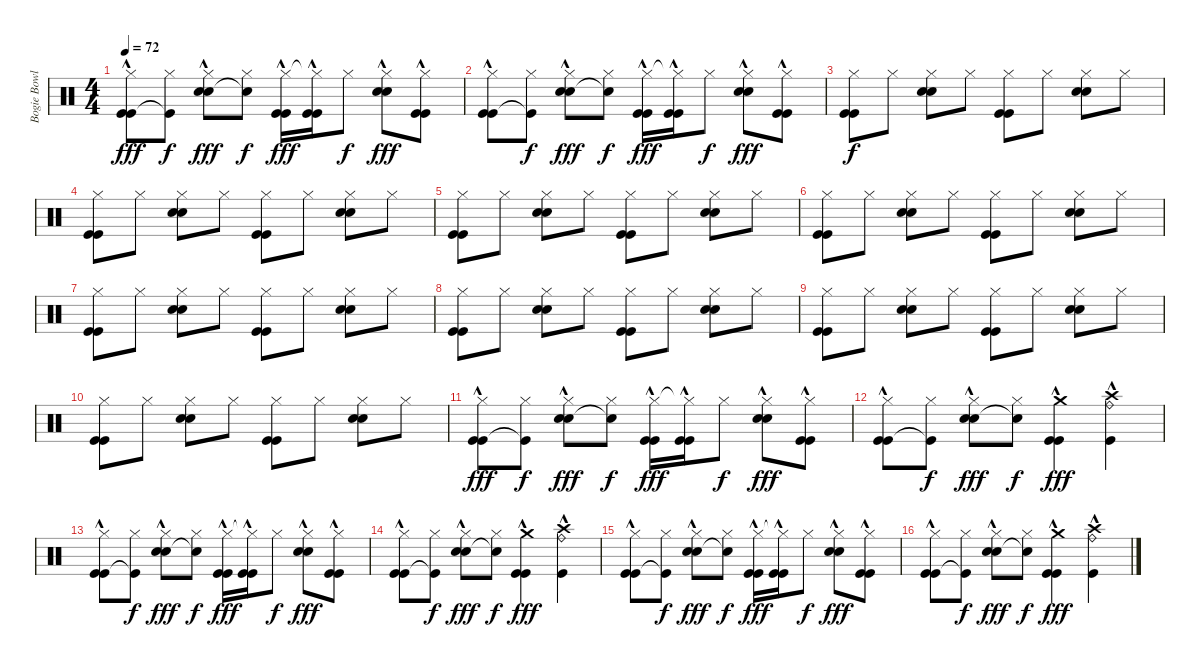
\track ("Bogie Bowles" "Bogie Bowl") {instrument percussion}
\staff {score}
\articulation defaults
\ts (4 4)
\tempo 72
\clef neutral
\ks c
("Hi-Hat (closed)" "Kick (hit)"{hac} "Kick (hit)"{hac}).8{dy fff} ("Hi-Hat (closed)" "Kick (hit)"{t}).8{dy f} ("Hi-Hat (closed)" "Snare (hit) 2"{hac} "Snare (hit) 2"{hac}).8{dy fff} ("Hi-Hat (closed)" "Snare (hit) 2"{t}).8{dy f} ("Hi-Hat (closed)" "Kick (hit)"{hac} "Kick (hit)"{hac}).16{dy fff} ("Hi-Hat (closed)"{t} "Kick (hit)"{hac} "Kick (hit)"{hac}).16 "Hi-Hat (closed)".8{dy f} ("Hi-Hat (closed)" "Snare (hit) 2"{hac} "Snare (hit) 2"{hac}).8{dy fff} ("Hi-Hat (closed)" "Kick (hit)"{hac} "Kick (hit)"{hac}).8 |
("Hi-Hat (closed)" "Kick (hit)"{hac} "Kick (hit)"{hac}).8 ("Hi-Hat (closed)" "Kick (hit)"{t}).8{dy f} ("Hi-Hat (closed)" "Snare (hit) 2"{hac} "Snare (hit) 2"{hac}).8{dy fff} ("Hi-Hat (closed)" "Snare (hit) 2"{t}).8{dy f} ("Hi-Hat (closed)" "Kick (hit)"{hac} "Kick (hit)"{hac}).16{dy fff} ("Hi-Hat (closed)"{t} "Kick (hit)"{hac} "Kick (hit)"{hac}).16 "Hi-Hat (closed)".8{dy f} ("Hi-Hat (closed)" "Snare (hit) 2"{hac} "Snare (hit) 2"{hac}).8{dy fff} ("Hi-Hat (closed)" "Kick (hit)"{hac} "Kick (hit)"{hac}).8 |
("Hi-Hat (closed)" "Kick (hit)" "Kick (hit)").8{dy f} "Hi-Hat (closed)".8 ("Hi-Hat (closed)" "Snare (hit) 2" "Snare (hit) 2").8 "Hi-Hat (closed)".8 ("Hi-Hat (closed)" "Kick (hit)" "Kick (hit)").8 "Hi-Hat (closed)".8 ("Hi-Hat (closed)" "Snare (hit) 2" "Snare (hit) 2").8 "Hi-Hat (closed)".8 |
("Hi-Hat (closed)" "Kick (hit)" "Kick (hit)").8 "Hi-Hat (closed)".8 ("Hi-Hat (closed)" "Snare (hit) 2" "Snare (hit) 2").8 "Hi-Hat (closed)".8 ("Hi-Hat (closed)" "Kick (hit)" "Kick (hit)").8 "Hi-Hat (closed)".8 ("Hi-Hat (closed)" "Snare (hit) 2" "Snare (hit) 2").8 "Hi-Hat (closed)".8 |
("Hi-Hat (closed)" "Kick (hit)" "Kick (hit)").8 "Hi-Hat (closed)".8 ("Hi-Hat (closed)" "Snare (hit) 2" "Snare (hit) 2").8 "Hi-Hat (closed)".8 ("Hi-Hat (closed)" "Kick (hit)" "Kick (hit)").8 "Hi-Hat (closed)".8 ("Hi-Hat (closed)" "Snare (hit) 2" "Snare (hit) 2").8 "Hi-Hat (closed)".8 |
("Hi-Hat (closed)" "Kick (hit)" "Kick (hit)").8 "Hi-Hat (closed)".8 ("Hi-Hat (closed)" "Snare (hit) 2" "Snare (hit) 2").8 "Hi-Hat (closed)".8 ("Hi-Hat (closed)" "Kick (hit)" "Kick (hit)").8 "Hi-Hat (closed)".8 ("Hi-Hat (closed)" "Snare (hit) 2" "Snare (hit) 2").8 "Hi-Hat (closed)".8 |
("Hi-Hat (closed)" "Kick (hit)" "Kick (hit)").8 "Hi-Hat (closed)".8 ("Hi-Hat (closed)" "Snare (hit) 2" "Snare (hit) 2").8 "Hi-Hat (closed)".8 ("Hi-Hat (closed)" "Kick (hit)" "Kick (hit)").8 "Hi-Hat (closed)".8 ("Hi-Hat (closed)" "Snare (hit) 2" "Snare (hit) 2").8 "Hi-Hat (closed)".8 |
("Hi-Hat (closed)" "Kick (hit)" "Kick (hit)").8 "Hi-Hat (closed)".8 ("Hi-Hat (closed)" "Snare (hit) 2" "Snare (hit) 2").8 "Hi-Hat (closed)".8 ("Hi-Hat (closed)" "Kick (hit)" "Kick (hit)").8 "Hi-Hat (closed)".8 ("Hi-Hat (closed)" "Snare (hit) 2" "Snare (hit) 2").8 "Hi-Hat (closed)".8 |
("Hi-Hat (closed)" "Kick (hit)" "Kick (hit)").8 "Hi-Hat (closed)".8 ("Hi-Hat (closed)" "Snare (hit) 2" "Snare (hit) 2").8 "Hi-Hat (closed)".8 ("Hi-Hat (closed)" "Kick (hit)" "Kick (hit)").8 "Hi-Hat (closed)".8 ("Hi-Hat (closed)" "Snare (hit) 2" "Snare (hit) 2").8 "Hi-Hat (closed)".8 |
("Hi-Hat (closed)" "Kick (hit)" "Kick (hit)").8 "Hi-Hat (closed)".8 ("Hi-Hat (closed)" "Snare (hit) 2" "Snare (hit) 2").8 "Hi-Hat (closed)".8 ("Hi-Hat (closed)" "Kick (hit)" "Kick (hit)").8 "Hi-Hat (closed)".8 ("Hi-Hat (closed)" "Snare (hit) 2" "Snare (hit) 2").8 "Hi-Hat (closed)".8 |
("Hi-Hat (closed)" "Kick (hit)"{hac} "Kick (hit)"{hac}).8{dy fff} ("Hi-Hat (closed)" "Kick (hit)"{t}).8{dy f} ("Hi-Hat (closed)" "Snare (hit) 2"{hac} "Snare (hit) 2"{hac}).8{dy fff} ("Hi-Hat (closed)" "Snare (hit) 2"{t}).8{dy f} ("Hi-Hat (closed)" "Kick (hit)"{hac} "Kick (hit)"{hac}).16{dy fff} ("Hi-Hat (closed)"{t} "Kick (hit)"{hac} "Kick (hit)"{hac}).16 "Hi-Hat (closed)".8{dy f} ("Hi-Hat (closed)" "Snare (hit) 2"{hac} "Snare (hit) 2"{hac}).8{dy fff} ("Hi-Hat (closed)" "Kick (hit)"{hac} "Kick (hit)"{hac}).8 |
("Hi-Hat (closed)" "Kick (hit)"{hac} "Kick (hit)"{hac}).8 ("Hi-Hat (closed)" "Kick (hit)"{t}).8{dy f} ("Hi-Hat (closed)" "Snare (hit) 2"{hac} "Snare (hit) 2"{hac}).8{dy fff} ("Hi-Hat (closed)" "Snare (hit) 2"{t}).8{dy f} ("Crash medium (hit)" "Kick (hit)"{hac} "Kick (hit)"{hac}).4{dy fff} ("Crash high (hit)" "Kick (hit)"{hac} "Ride (bell)"{hac}).4 |
("Hi-Hat (closed)" "Kick (hit)"{hac} "Kick (hit)"{hac}).8 ("Hi-Hat (closed)" "Kick (hit)"{t}).8{dy f} ("Hi-Hat (closed)" "Snare (hit) 2"{hac} "Snare (hit) 2"{hac}).8{dy fff} ("Hi-Hat (closed)" "Snare (hit) 2"{t}).8{dy f} ("Hi-Hat (closed)" "Kick (hit)"{hac} "Kick (hit)"{hac}).16{dy fff} ("Hi-Hat (closed)"{t} "Kick (hit)"{hac} "Kick (hit)"{hac}).16 "Hi-Hat (closed)".8{dy f} ("Hi-Hat (closed)" "Snare (hit) 2"{hac} "Snare (hit) 2"{hac}).8{dy fff} ("Hi-Hat (closed)" "Kick (hit)"{hac} "Kick (hit)"{hac}).8 |
("Hi-Hat (closed)" "Kick (hit)"{hac} "Kick (hit)"{hac}).8 ("Hi-Hat (closed)" "Kick (hit)"{t}).8{dy f} ("Hi-Hat (closed)" "Snare (hit) 2"{hac} "Snare (hit) 2"{hac}).8{dy fff} ("Hi-Hat (closed)" "Snare (hit) 2"{t}).8{dy f} ("Crash medium (hit)" "Kick (hit)"{hac} "Kick (hit)"{hac}).4{dy fff} ("Crash high (hit)" "Kick (hit)"{hac} "Ride (bell)"{hac}).4 |
("Hi-Hat (closed)" "Kick (hit)"{hac} "Kick (hit)"{hac}).8 ("Hi-Hat (closed)" "Kick (hit)"{t}).8{dy f} ("Hi-Hat (closed)" "Snare (hit) 2"{hac} "Snare (hit) 2"{hac}).8{dy fff} ("Hi-Hat (closed)" "Snare (hit) 2"{t}).8{dy f} ("Hi-Hat (closed)" "Kick (hit)"{hac} "Kick (hit)"{hac}).16{dy fff} ("Hi-Hat (closed)"{t} "Kick (hit)"{hac} "Kick (hit)"{hac}).16 "Hi-Hat (closed)".8{dy f} ("Hi-Hat (closed)" "Snare (hit) 2"{hac} "Snare (hit) 2"{hac}).8{dy fff} ("Hi-Hat (closed)" "Kick (hit)"{hac} "Kick (hit)"{hac}).8 |
("Hi-Hat (closed)" "Kick (hit)"{hac} "Kick (hit)"{hac}).8 ("Hi-Hat (closed)" "Kick (hit)"{t}).8{dy f} ("Hi-Hat (closed)" "Snare (hit) 2"{hac} "Snare (hit) 2"{hac}).8{dy fff} ("Hi-Hat (closed)" "Snare (hit) 2"{t}).8{dy f} ("Crash medium (hit)" "Kick (hit)"{hac} "Kick (hit)"{hac}).4{dy fff} ("Crash high (hit)" "Kick (hit)"{hac} "Ride (bell)"{hac}).4
